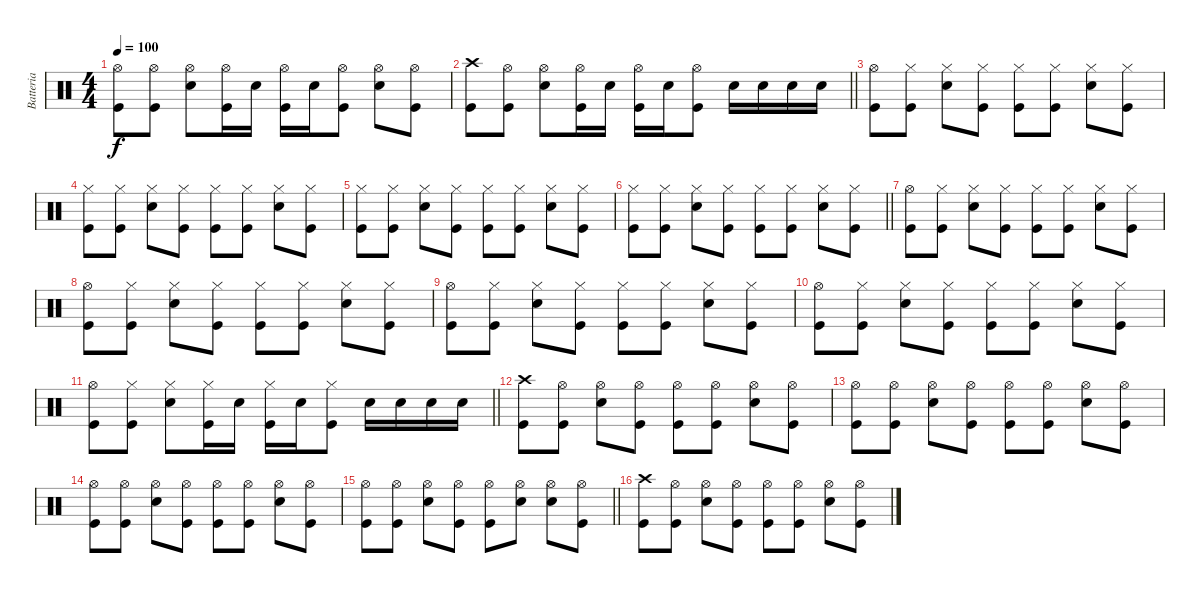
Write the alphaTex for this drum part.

\track ("Batteria" "Batteria") {instrument percussion}
\staff {score}
\articulation defaults
\ts (4 4)
\tempo 100
\clef neutral
\ks c
("Hi-Hat (open)" "Kick (hit)").8{dy f} ("Hi-Hat (open)" "Kick (hit)").8 ("Snare (hit) 2" "Hi-Hat (open)").8 ("Hi-Hat (open)" "Kick (hit)").16 "Snare (hit) 2".16 ("Kick (hit)" "Hi-Hat (open)").16 "Snare (hit) 2".16 ("Kick (hit)" "Hi-Hat (open)").8 ("Hi-Hat (open)" "Snare (hit) 2").8 ("Kick (hit)" "Hi-Hat (open)").8 |
\barLineRight lightlight
("Crash high (hit)" "Kick (hit)").8 ("Hi-Hat (open)" "Kick (hit)").8 ("Snare (hit) 2" "Hi-Hat (open)").8 ("Hi-Hat (open)" "Kick (hit)").16 "Snare (hit) 2".16 ("Kick (hit)" "Hi-Hat (open)").16 "Snare (hit) 2".16 ("Kick (hit)" "Hi-Hat (open)").8 "Snare (hit) 2".16 "Snare (hit) 2".16 "Snare (hit) 2".16 "Snare (hit) 2".16 |
("Hi-Hat (open)" "Kick (hit)").8 ("Hi-Hat (closed)" "Kick (hit)").8 ("Snare (hit) 2" "Hi-Hat (closed)").8 ("Hi-Hat (closed)" "Kick (hit)").8 ("Hi-Hat (closed)" "Kick (hit)").8 ("Hi-Hat (closed)" "Kick (hit)").8 ("Snare (hit) 2" "Hi-Hat (closed)").8 ("Hi-Hat (closed)" "Kick (hit)").8 |
("Hi-Hat (closed)" "Kick (hit)").8 ("Hi-Hat (closed)" "Kick (hit)").8 ("Snare (hit) 2" "Hi-Hat (closed)").8 ("Hi-Hat (closed)" "Kick (hit)").8 ("Hi-Hat (closed)" "Kick (hit)").8 ("Hi-Hat (closed)" "Kick (hit)").8 ("Snare (hit) 2" "Hi-Hat (closed)").8 ("Hi-Hat (closed)" "Kick (hit)").8 |
("Hi-Hat (closed)" "Kick (hit)").8 ("Hi-Hat (closed)" "Kick (hit)").8 ("Snare (hit) 2" "Hi-Hat (closed)").8 ("Hi-Hat (closed)" "Kick (hit)").8 ("Hi-Hat (closed)" "Kick (hit)").8 ("Hi-Hat (closed)" "Kick (hit)").8 ("Snare (hit) 2" "Hi-Hat (closed)").8 ("Hi-Hat (closed)" "Kick (hit)").8 |
\barLineRight lightlight
("Hi-Hat (closed)" "Kick (hit)").8 ("Hi-Hat (closed)" "Kick (hit)").8 ("Snare (hit) 2" "Hi-Hat (closed)").8 ("Hi-Hat (closed)" "Kick (hit)").8 ("Hi-Hat (closed)" "Kick (hit)").8 ("Hi-Hat (closed)" "Kick (hit)").8 ("Snare (hit) 2" "Hi-Hat (closed)").8 ("Hi-Hat (closed)" "Kick (hit)").8 |
("Hi-Hat (open)" "Kick (hit)").8 ("Hi-Hat (closed)" "Kick (hit)").8 ("Snare (hit) 2" "Hi-Hat (closed)").8 ("Hi-Hat (closed)" "Kick (hit)").8 ("Hi-Hat (closed)" "Kick (hit)").8 ("Hi-Hat (closed)" "Kick (hit)").8 ("Snare (hit) 2" "Hi-Hat (closed)").8 ("Hi-Hat (closed)" "Kick (hit)").8 |
("Hi-Hat (open)" "Kick (hit)").8 ("Hi-Hat (closed)" "Kick (hit)").8 ("Snare (hit) 2" "Hi-Hat (closed)").8 ("Hi-Hat (closed)" "Kick (hit)").8 ("Hi-Hat (closed)" "Kick (hit)").8 ("Hi-Hat (closed)" "Kick (hit)").8 ("Snare (hit) 2" "Hi-Hat (closed)").8 ("Hi-Hat (closed)" "Kick (hit)").8 |
("Hi-Hat (open)" "Kick (hit)").8 ("Hi-Hat (closed)" "Kick (hit)").8 ("Snare (hit) 2" "Hi-Hat (closed)").8 ("Hi-Hat (closed)" "Kick (hit)").8 ("Hi-Hat (closed)" "Kick (hit)").8 ("Hi-Hat (closed)" "Kick (hit)").8 ("Snare (hit) 2" "Hi-Hat (closed)").8 ("Hi-Hat (closed)" "Kick (hit)").8 |
("Hi-Hat (open)" "Kick (hit)").8 ("Hi-Hat (closed)" "Kick (hit)").8 ("Snare (hit) 2" "Hi-Hat (closed)").8 ("Hi-Hat (closed)" "Kick (hit)").8 ("Hi-Hat (closed)" "Kick (hit)").8 ("Hi-Hat (closed)" "Kick (hit)").8 ("Snare (hit) 2" "Hi-Hat (closed)").8 ("Hi-Hat (closed)" "Kick (hit)").8 |
\barLineRight lightlight
("Kick (hit)" "Hi-Hat (open)").8 ("Hi-Hat (closed)" "Kick (hit)").8 ("Snare (hit) 2" "Hi-Hat (closed)").8 ("Hi-Hat (closed)" "Kick (hit)").16 "Snare (hit) 2".16 ("Kick (hit)" "Hi-Hat (closed)").16 "Snare (hit) 2".16 ("Kick (hit)" "Hi-Hat (closed)").8 "Snare (hit) 2".16 "Snare (hit) 2".16 "Snare (hit) 2".16 "Snare (hit) 2".16 |
("Crash high (hit)" "Kick (hit)").8 ("Hi-Hat (open)" "Kick (hit)").8 ("Snare (hit) 2" "Hi-Hat (open)").8 ("Hi-Hat (open)" "Kick (hit)").8 ("Hi-Hat (open)" "Kick (hit)").8 ("Hi-Hat (open)" "Kick (hit)").8 ("Snare (hit) 2" "Hi-Hat (open)").8 ("Hi-Hat (open)" "Kick (hit)").8 |
("Hi-Hat (open)" "Kick (hit)").8 ("Hi-Hat (open)" "Kick (hit)").8 ("Snare (hit) 2" "Hi-Hat (open)").8 ("Hi-Hat (open)" "Kick (hit)").8 ("Hi-Hat (open)" "Kick (hit)").8 ("Hi-Hat (open)" "Kick (hit)").8 ("Snare (hit) 2" "Hi-Hat (open)").8 ("Hi-Hat (open)" "Kick (hit)").8 |
("Hi-Hat (open)" "Kick (hit)").8 ("Hi-Hat (open)" "Kick (hit)").8 ("Snare (hit) 2" "Hi-Hat (open)").8 ("Hi-Hat (open)" "Kick (hit)").8 ("Hi-Hat (open)" "Kick (hit)").8 ("Hi-Hat (open)" "Kick (hit)").8 ("Snare (hit) 2" "Hi-Hat (open)").8 ("Hi-Hat (open)" "Kick (hit)").8 |
\barLineRight lightlight
("Hi-Hat (open)" "Kick (hit)").8 ("Hi-Hat (open)" "Kick (hit)").8 ("Snare (hit) 2" "Hi-Hat (open)").8 ("Hi-Hat (open)" "Kick (hit)").8 ("Hi-Hat (open)" "Kick (hit)").8 ("Hi-Hat (open)" "Snare (hit) 2").8 ("Snare (hit) 2" "Hi-Hat (open)").8 ("Hi-Hat (open)" "Kick (hit)").8 |
("Crash high (hit)" "Kick (hit)").8 ("Hi-Hat (open)" "Kick (hit)").8 ("Snare (hit) 2" "Hi-Hat (open)").8 ("Hi-Hat (open)" "Kick (hit)").8 ("Hi-Hat (open)" "Kick (hit)").8 ("Hi-Hat (open)" "Kick (hit)").8 ("Snare (hit) 2" "Hi-Hat (open)").8 ("Hi-Hat (open)" "Kick (hit)").8
